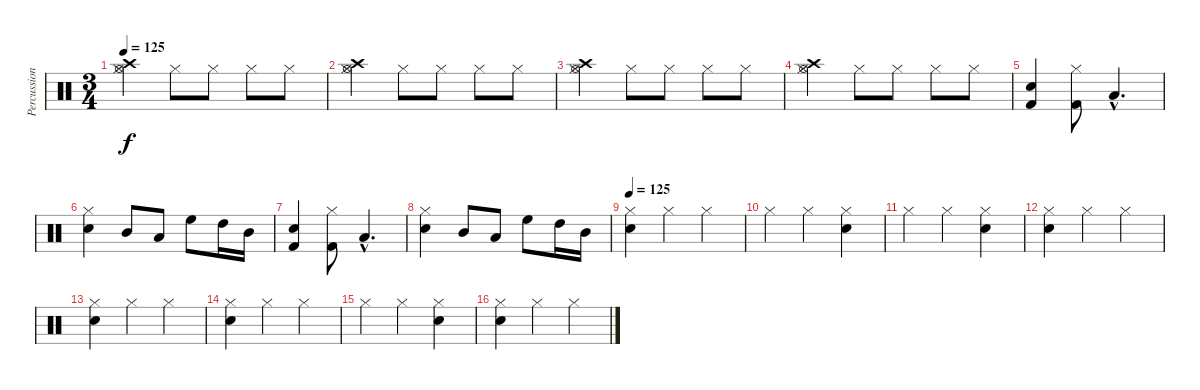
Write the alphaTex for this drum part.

\track ("Percussion" "Percussion") {instrument percussion}
\staff {score}
\articulation defaults
\ts (3 4)
\tempo 125
\clef neutral
\ks c
("Hi-Hat (open)" "Crash high (hit)" "Hi-Hat (closed)").4{dy f} "Hi-Hat (closed)".8 "Hi-Hat (closed)".8 "Hi-Hat (closed)".8 "Hi-Hat (closed)".8 |
("Hi-Hat (open)" "Crash high (hit)" "Hi-Hat (closed)").4 "Hi-Hat (closed)".8 "Hi-Hat (closed)".8 "Hi-Hat (closed)".8 "Hi-Hat (closed)".8 |
("Hi-Hat (open)" "Crash high (hit)" "Hi-Hat (closed)").4 "Hi-Hat (closed)".8 "Hi-Hat (closed)".8 "Hi-Hat (closed)".8 "Hi-Hat (closed)".8 |
("Hi-Hat (open)" "Crash high (hit)" "Hi-Hat (closed)").4 "Hi-Hat (closed)".8 "Hi-Hat (closed)".8 "Hi-Hat (closed)".8 "Hi-Hat (closed)".8 |
("Kick (hit) 2" "Snare (hit) 2").4 ("Kick (hit) 2" "Hi-Hat (closed)").8 "Low Tom (hit)"{hac}.4{d} |
("Snare (hit) 2" "Hi-Hat (closed)").4 "Mid Tom (hit)".8 "Low Tom (hit)".8 "High Floor Tom (hit)".8 "High Tom (hit)".16 "Mid Tom (hit)".16 |
("Kick (hit) 2" "Snare (hit) 2").4 ("Kick (hit) 2" "Hi-Hat (closed)").8 "Low Tom (hit)"{hac}.4{d} |
("Snare (hit) 2" "Hi-Hat (closed)").4 "Mid Tom (hit)".8 "Low Tom (hit)".8 "High Floor Tom (hit)".8 "High Tom (hit)".16 "Mid Tom (hit)".16 |
\tempo 125
("Snare (hit) 2" "Hi-Hat (closed)").4 "Hi-Hat (closed)".4 "Hi-Hat (closed)".4 |
"Hi-Hat (closed)".4 "Hi-Hat (closed)".4 ("Snare (hit) 2" "Hi-Hat (closed)").4 |
"Hi-Hat (closed)".4 "Hi-Hat (closed)".4 ("Snare (hit) 2" "Hi-Hat (closed)").4 |
("Snare (hit) 2" "Hi-Hat (closed)").4 "Hi-Hat (closed)".4 "Hi-Hat (closed)".4 |
("Snare (hit) 2" "Hi-Hat (closed)").4 "Hi-Hat (closed)".4 "Hi-Hat (closed)".4 |
("Snare (hit) 2" "Hi-Hat (closed)").4 "Hi-Hat (closed)".4 "Hi-Hat (closed)".4 |
"Hi-Hat (closed)".4 "Hi-Hat (closed)".4 ("Snare (hit) 2" "Hi-Hat (closed)").4 |
("Snare (hit) 2" "Hi-Hat (closed)").4 "Hi-Hat (closed)".4 "Hi-Hat (closed)".4
